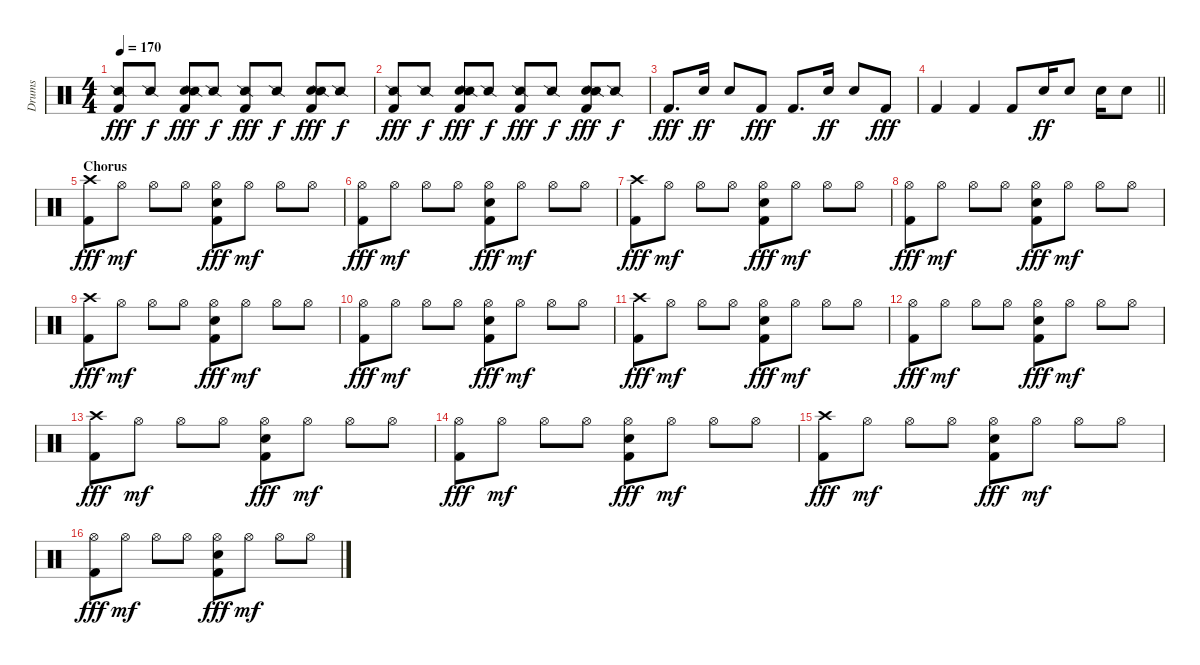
\track ("Drums" "Drums") {instrument percussion}
\staff {score}
\articulation defaults
\ts (4 4)
\tempo 170
\clef neutral
\ks c
("Kick (hit) 2" "Snare (side stick) 2").8{dy fff} "Snare (side stick) 2".8{dy f} ("Snare (hit) 2" "Kick (hit) 2" "Snare (side stick) 2").8{dy fff} "Snare (side stick) 2".8{dy f} ("Kick (hit) 2" "Snare (side stick) 2").8{dy fff} "Snare (side stick) 2".8{dy f} ("Snare (hit) 2" "Kick (hit) 2" "Snare (side stick) 2").8{dy fff} "Snare (side stick) 2".8{dy f} |
("Kick (hit) 2" "Snare (side stick) 2").8{dy fff} "Snare (side stick) 2".8{dy f} ("Snare (hit) 2" "Kick (hit) 2" "Snare (side stick) 2").8{dy fff} "Snare (side stick) 2".8{dy f} ("Kick (hit) 2" "Snare (side stick) 2").8{dy fff} "Snare (side stick) 2".8{dy f} ("Snare (hit) 2" "Kick (hit) 2" "Snare (side stick) 2").8{dy fff} "Snare (side stick) 2".8{dy f} |
"Kick (hit) 2".8{d dy fff} "Snare (hit) 2".16{dy ff} "Snare (hit) 2".8 "Kick (hit) 2".8{dy fff} "Kick (hit) 2".8{d} "Snare (hit) 2".16{dy ff} "Snare (hit) 2".8 "Kick (hit) 2".8{dy fff} |
\barLineRight lightlight "Kick (hit) 2".4 "Kick (hit) 2".4 "Kick (hit) 2".8 "Snare (hit) 2".16{dy ff} "Snare (hit) 2".8 "Snare (hit) 2".16 "Snare (hit) 2".8
|
\section ("" "Chorus")
("Crash high (hit)" "Kick (hit) 2").8{dy fff} "Hi-Hat (open)".8{dy mf} "Hi-Hat (open)".8 "Hi-Hat (open)".8 ("Hi-Hat (open)" "Snare (hit) 2" "Kick (hit) 2").8{dy fff} "Hi-Hat (open)".8{dy mf} "Hi-Hat (open)".8 "Hi-Hat (open)".8 |
("Hi-Hat (open)" "Kick (hit) 2").8{dy fff} "Hi-Hat (open)".8{dy mf} "Hi-Hat (open)".8 "Hi-Hat (open)".8 ("Hi-Hat (open)" "Snare (hit) 2" "Kick (hit) 2").8{dy fff} "Hi-Hat (open)".8{dy mf} "Hi-Hat (open)".8 "Hi-Hat (open)".8 |
("Crash high (hit)" "Kick (hit) 2").8{dy fff} "Hi-Hat (open)".8{dy mf} "Hi-Hat (open)".8 "Hi-Hat (open)".8 ("Hi-Hat (open)" "Snare (hit) 2" "Kick (hit) 2").8{dy fff} "Hi-Hat (open)".8{dy mf} "Hi-Hat (open)".8 "Hi-Hat (open)".8 |
("Hi-Hat (open)" "Kick (hit) 2").8{dy fff} "Hi-Hat (open)".8{dy mf} "Hi-Hat (open)".8 "Hi-Hat (open)".8 ("Hi-Hat (open)" "Snare (hit) 2" "Kick (hit) 2").8{dy fff} "Hi-Hat (open)".8{dy mf} "Hi-Hat (open)".8 "Hi-Hat (open)".8 |
("Crash high (hit)" "Kick (hit) 2").8{dy fff} "Hi-Hat (open)".8{dy mf} "Hi-Hat (open)".8 "Hi-Hat (open)".8 ("Hi-Hat (open)" "Snare (hit) 2" "Kick (hit) 2").8{dy fff} "Hi-Hat (open)".8{dy mf} "Hi-Hat (open)".8 "Hi-Hat (open)".8 |
("Hi-Hat (open)" "Kick (hit) 2").8{dy fff} "Hi-Hat (open)".8{dy mf} "Hi-Hat (open)".8 "Hi-Hat (open)".8 ("Hi-Hat (open)" "Snare (hit) 2" "Kick (hit) 2").8{dy fff} "Hi-Hat (open)".8{dy mf} "Hi-Hat (open)".8 "Hi-Hat (open)".8 |
("Crash high (hit)" "Kick (hit) 2").8{dy fff} "Hi-Hat (open)".8{dy mf} "Hi-Hat (open)".8 "Hi-Hat (open)".8 ("Hi-Hat (open)" "Snare (hit) 2" "Kick (hit) 2").8{dy fff} "Hi-Hat (open)".8{dy mf} "Hi-Hat (open)".8 "Hi-Hat (open)".8 |
("Hi-Hat (open)" "Kick (hit) 2").8{dy fff} "Hi-Hat (open)".8{dy mf} "Hi-Hat (open)".8 "Hi-Hat (open)".8 ("Hi-Hat (open)" "Snare (hit) 2" "Kick (hit) 2").8{dy fff} "Hi-Hat (open)".8{dy mf} "Hi-Hat (open)".8 "Hi-Hat (open)".8 |
("Crash high (hit)" "Kick (hit) 2").8{dy fff} "Hi-Hat (open)".8{dy mf} "Hi-Hat (open)".8 "Hi-Hat (open)".8 ("Hi-Hat (open)" "Snare (hit) 2" "Kick (hit) 2").8{dy fff} "Hi-Hat (open)".8{dy mf} "Hi-Hat (open)".8 "Hi-Hat (open)".8 |
("Hi-Hat (open)" "Kick (hit) 2").8{dy fff} "Hi-Hat (open)".8{dy mf} "Hi-Hat (open)".8 "Hi-Hat (open)".8 ("Hi-Hat (open)" "Snare (hit) 2" "Kick (hit) 2").8{dy fff} "Hi-Hat (open)".8{dy mf} "Hi-Hat (open)".8 "Hi-Hat (open)".8 |
("Crash high (hit)" "Kick (hit) 2").8{dy fff} "Hi-Hat (open)".8{dy mf} "Hi-Hat (open)".8 "Hi-Hat (open)".8 ("Hi-Hat (open)" "Snare (hit) 2" "Kick (hit) 2").8{dy fff} "Hi-Hat (open)".8{dy mf} "Hi-Hat (open)".8 "Hi-Hat (open)".8 |
("Hi-Hat (open)" "Kick (hit) 2").8{dy fff} "Hi-Hat (open)".8{dy mf} "Hi-Hat (open)".8 "Hi-Hat (open)".8 ("Hi-Hat (open)" "Snare (hit) 2" "Kick (hit) 2").8{dy fff} "Hi-Hat (open)".8{dy mf} "Hi-Hat (open)".8 "Hi-Hat (open)".8
